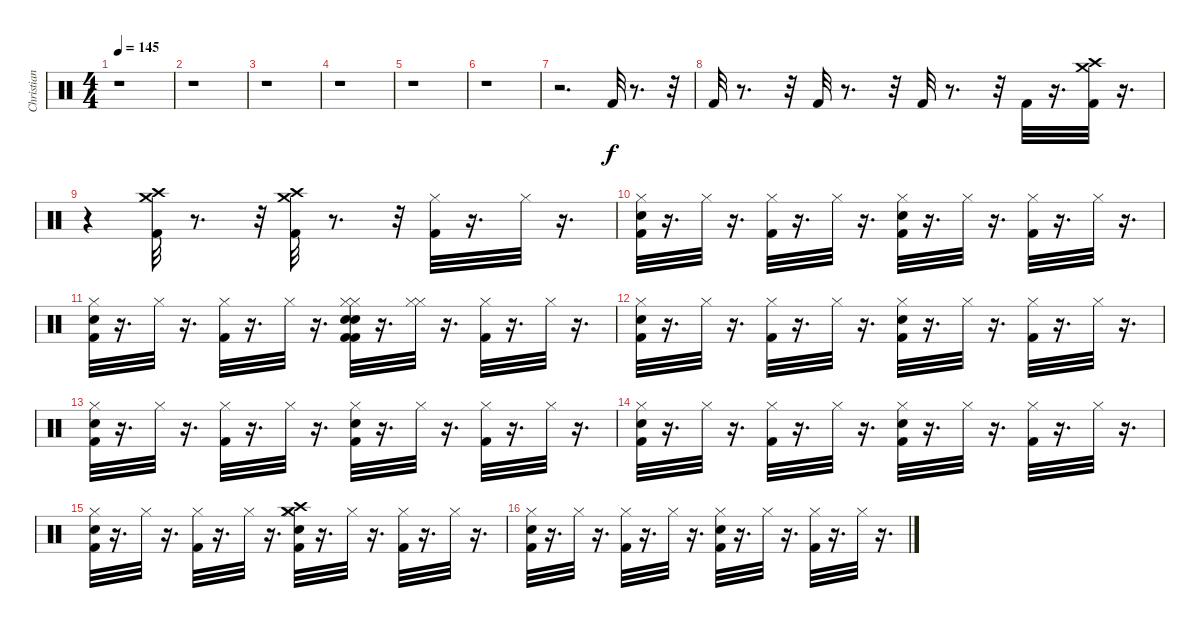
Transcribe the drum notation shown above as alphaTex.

\track ("Christian Paredes" "Christian ") {instrument percussion}
\staff {score}
\articulation defaults
\ts (4 4)
\tempo 145
\clef neutral
\ks c
r.1{dy f} |
r.1 |
r.1 |
r.1 |
r.1 |
r.1 |
r.2{d} "Kick (hit) 2".32 r.8{d} r.32 |
"Kick (hit) 2".32 r.8{d} r.32 "Kick (hit) 2".32 r.8{d} r.32 "Kick (hit) 2".32 r.8{d} r.32 "Kick (hit) 2".32 r.16{d} ("Crash high (hit)" "Kick (hit) 2" "Crash medium (hit)").32 r.16{d} |
r.4 ("Crash high (hit)" "Crash medium (hit)" "Kick (hit) 2").32 r.8{d} r.32 ("Crash high (hit)" "Crash medium (hit)" "Kick (hit) 2").32 r.8{d} r.32 ("Hi-Hat (closed)" "Kick (hit) 2").32 r.16{d} "Hi-Hat (closed)".32 r.16{d} |
("Snare (hit) 2" "Hi-Hat (closed)" "Kick (hit) 2").32 r.16{d} "Hi-Hat (closed)".32 r.16{d} ("Hi-Hat (closed)" "Kick (hit) 2").32 r.16{d} "Hi-Hat (closed)".32 r.16{d} ("Snare (hit) 2" "Hi-Hat (closed)" "Kick (hit) 2").32 r.16{d} "Hi-Hat (closed)".32 r.16{d} ("Hi-Hat (closed)" "Kick (hit) 2").32 r.16{d} "Hi-Hat (closed)".32 r.16{d} |
("Snare (hit) 2" "Hi-Hat (closed)" "Kick (hit) 2").32 r.16{d} "Hi-Hat (closed)".32 r.16{d} ("Hi-Hat (closed)" "Kick (hit) 2").32 r.16{d} "Hi-Hat (closed)".32 r.16{d} ("Kick (hit) 2" "Snare (hit) 2" "Hi-Hat (closed)" "Snare (hit) 2" "Hi-Hat (closed)" "Kick (hit) 2").32 r.16{d} ("Hi-Hat (closed)" "Hi-Hat (closed)").32 r.16{d} ("Hi-Hat (closed)" "Kick (hit) 2").32 r.16{d} "Hi-Hat (closed)".32 r.16{d} |
("Snare (hit) 2" "Hi-Hat (closed)" "Kick (hit) 2").32 r.16{d} "Hi-Hat (closed)".32 r.16{d} ("Hi-Hat (closed)" "Kick (hit) 2").32 r.16{d} "Hi-Hat (closed)".32 r.16{d} ("Snare (hit) 2" "Hi-Hat (closed)" "Kick (hit) 2").32 r.16{d} "Hi-Hat (closed)".32 r.16{d} ("Hi-Hat (closed)" "Kick (hit) 2").32 r.16{d} "Hi-Hat (closed)".32 r.16{d} |
("Snare (hit) 2" "Hi-Hat (closed)" "Kick (hit) 2").32 r.16{d} "Hi-Hat (closed)".32 r.16{d} ("Hi-Hat (closed)" "Kick (hit) 2").32 r.16{d} "Hi-Hat (closed)".32 r.16{d} ("Snare (hit) 2" "Hi-Hat (closed)" "Kick (hit) 2").32 r.16{d} "Hi-Hat (closed)".32 r.16{d} ("Hi-Hat (closed)" "Kick (hit) 2").32 r.16{d} "Hi-Hat (closed)".32 r.16{d} |
("Snare (hit) 2" "Hi-Hat (closed)" "Kick (hit) 2").32 r.16{d} "Hi-Hat (closed)".32 r.16{d} ("Hi-Hat (closed)" "Kick (hit) 2").32 r.16{d} "Hi-Hat (closed)".32 r.16{d} ("Snare (hit) 2" "Hi-Hat (closed)" "Kick (hit) 2").32 r.16{d} "Hi-Hat (closed)".32 r.16{d} ("Hi-Hat (closed)" "Kick (hit) 2").32 r.16{d} "Hi-Hat (closed)".32 r.16{d} |
("Snare (hit) 2" "Hi-Hat (closed)" "Kick (hit) 2").32 r.16{d} "Hi-Hat (closed)".32 r.16{d} ("Hi-Hat (closed)" "Kick (hit) 2").32 r.16{d} "Hi-Hat (closed)".32 r.16{d} ("Crash medium (hit)" "Crash high (hit)" "Snare (hit) 2" "Hi-Hat (closed)" "Kick (hit) 2").32 r.16{d} "Hi-Hat (closed)".32 r.16{d} ("Hi-Hat (closed)" "Kick (hit) 2").32 r.16{d} "Hi-Hat (closed)".32 r.16{d} |
("Snare (hit) 2" "Hi-Hat (closed)" "Kick (hit) 2").32 r.16{d} "Hi-Hat (closed)".32 r.16{d} ("Hi-Hat (closed)" "Kick (hit) 2").32 r.16{d} "Hi-Hat (closed)".32 r.16{d} ("Snare (hit) 2" "Hi-Hat (closed)" "Kick (hit) 2").32 r.16{d} "Hi-Hat (closed)".32 r.16{d} ("Hi-Hat (closed)" "Kick (hit) 2").32 r.16{d} "Hi-Hat (closed)".32 r.16{d}
